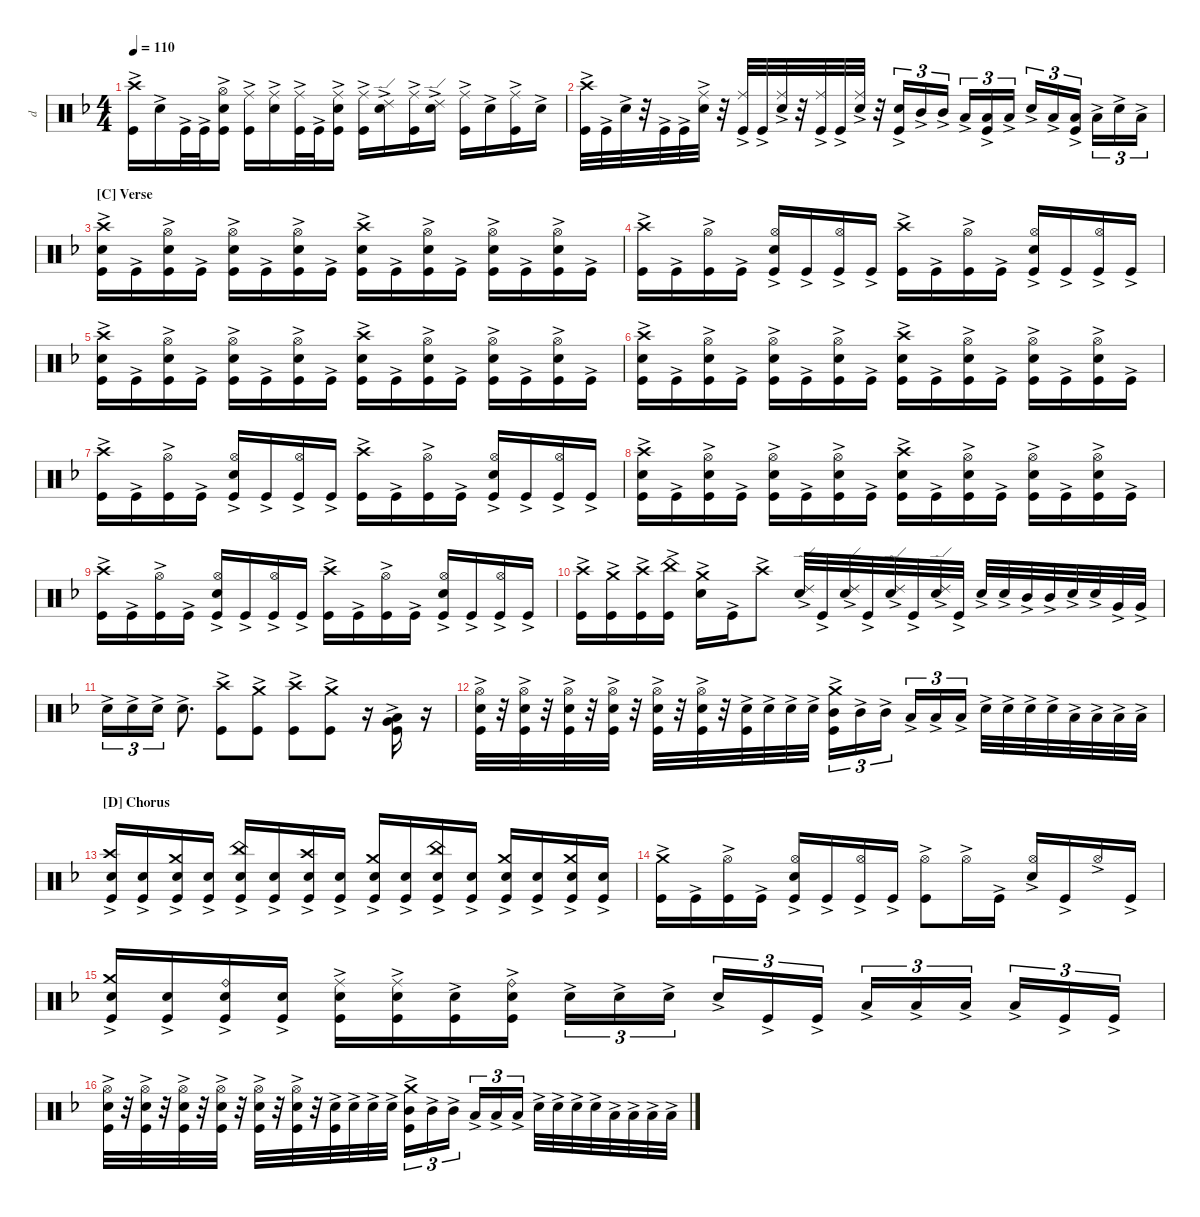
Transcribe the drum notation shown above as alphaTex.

\defaultSystemsLayout 4
\hideDynamics
\bracketExtendMode nobrackets
\otherSystemsTrackNameOrientation horizontal
\track ("Drumkit" "d") {instrument percussion}
\staff {score}
\articulation defaults
\ts (4 4)
\tempo 110
\clef neutral
\ks dminor
("Crash high (hit)"{ac acc forcenatural} "Kick (hit)"{ac acc forcenatural}).16{dy mf beam Down} "Snare (hit) 2"{ac acc forcenatural}.16{beam Down} "Kick (hit)"{ac acc forcenatural}.32{beam Down} "Kick (hit)"{ac acc forcenatural}.32{beam Down} ("Hi-Hat (open)"{ac acc forcenatural} "Snare (hit) 2"{ac acc forcenatural} "Kick (hit)"{ac acc forcenatural}).16{beam Down} ("Ride (middle)"{ac acc forcenatural} "Kick (hit)"{ac acc forcenatural}).16{beam Down} ("Ride (middle)"{ac acc forcenatural} "Snare (hit) 2"{ac acc forcenatural}).16{beam Down} ("Ride (middle)"{ac acc forcenatural} "Kick (hit)"{ac acc forcenatural}).32{beam Down} "Kick (hit)"{ac acc forcenatural}.32{beam Down} ("Ride (middle)"{ac acc forcenatural} "Snare (hit) 2"{ac acc forcenatural} "Kick (hit)"{ac acc forcenatural}).16{beam Down} ("Ride (middle)"{ac acc forcenatural} "Kick (hit)"{ac acc forcenatural}).16{beam Down} ("Ride (edge) 2"{ac acc forcenatural} "Snare (hit) 2"{ac acc forcenatural}).16{beam Down} ("Ride (middle)"{ac acc forcenatural} "Kick (hit)"{ac acc forcenatural}).16{beam Down} ("Ride (edge) 2"{ac acc forcenatural} "Snare (hit) 2"{ac acc forcenatural}).16{beam Down} ("Ride (middle)"{ac acc forcenatural} "Kick (hit)"{ac acc forcenatural}).16{beam Down} "Snare (hit) 2"{ac acc forcenatural}.16{beam Down} ("Ride (middle)"{ac acc forcenatural} "Kick (hit)"{ac acc forcenatural}).16{beam Down} "Snare (hit) 2"{ac acc forcenatural}.16{beam Down} |
("Crash high (hit)"{ac acc forcenatural} "Kick (hit)"{ac acc forcenatural}).32{beam Down} "Kick (hit)"{ac acc forcenatural}.32{beam Down} "Snare (hit) 2"{ac acc forcenatural}.32{beam Down} r.32{beam Down} "Kick (hit)"{ac acc forcenatural}.32{beam Down} "Kick (hit)"{ac acc forcenatural}.32{beam Down} ("Ride (middle)"{ac acc forcenatural} "Snare (hit) 2"{ac acc forcenatural}).32{beam Down} r.32{beam Down} ("Ride (middle)"{ac acc forcenatural} "Kick (hit)"{ac acc forcenatural}).32{beam Up} "Kick (hit)"{ac acc forcenatural}.32{beam Up} ("Ride (middle)"{ac acc forcenatural} "Snare (hit) 2"{ac acc forcenatural}).32{beam Up} r.32{beam Up} ("Ride (middle)"{ac acc forcenatural} "Kick (hit)"{ac acc forcenatural}).32{beam Up} "Kick (hit)"{ac acc forcenatural}.32{beam Up} ("Ride (middle)"{ac acc forcenatural} "Snare (hit) 2"{ac acc forcenatural}).32{beam Up} r.32{beam Up} ("Snare (hit) 2"{ac acc forcenatural} "Kick (hit)"{ac acc forcenatural}).16{tu (3 2) beam Up} "Mid Tom (hit)"{ac acc forcenatural}.16{tu (3 2) beam Up} "Mid Tom (hit)"{ac acc forcenatural}.16{tu (3 2) beam Up} "Low Tom (hit)"{ac acc forcenatural}.16{tu (3 2) beam Up} ("Low Tom (hit)"{ac acc forcenatural} "Kick (hit)"{ac acc forcenatural}).16{tu (3 2) beam Up} "Low Tom (hit)"{ac acc forcenatural}.16{tu (3 2) beam Up} "Snare (hit) 2"{ac acc forcenatural}.16{tu (3 2) beam Up} "Low Tom (hit)"{ac acc forcenatural}.16{tu (3 2) beam Up} ("Low Tom (hit)"{ac acc forcenatural} "Kick (hit)"{ac acc forcenatural}).16{tu (3 2) beam Up} "Low Tom (hit)"{ac acc forcenatural}.16{tu (3 2) beam Down} "Snare (hit) 2"{ac acc forcenatural}.16{tu (3 2) beam Down} "Low Tom (hit)"{ac acc forcenatural}.16{tu (3 2) beam Down} |
\section ("C" "Verse")
("Crash high (hit)"{ac acc forcenatural} "Snare (hit) 2"{ac acc forcenatural} "Kick (hit)"{ac acc forcenatural}).16{beam Down} "Kick (hit)"{ac acc forcenatural}.16{beam Down} ("Hi-Hat (open)"{ac acc forcenatural} "Snare (hit) 2"{ac acc forcenatural} "Kick (hit)"{ac acc forcenatural}).16{beam Down} "Kick (hit)"{ac acc forcenatural}.16{beam Down} ("Hi-Hat (open)"{ac acc forcenatural} "Snare (hit) 2"{ac acc forcenatural} "Kick (hit)"{ac acc forcenatural}).16{beam Down} "Kick (hit)"{ac acc forcenatural}.16{beam Down} ("Hi-Hat (open)"{ac acc forcenatural} "Snare (hit) 2"{ac acc forcenatural} "Kick (hit)"{ac acc forcenatural}).16{beam Down} "Kick (hit)"{ac acc forcenatural}.16{beam Down} ("Crash high (hit)"{ac acc forcenatural} "Snare (hit) 2"{ac acc forcenatural} "Kick (hit)"{ac acc forcenatural}).16{beam Down} "Kick (hit)"{ac acc forcenatural}.16{beam Down} ("Hi-Hat (open)"{ac acc forcenatural} "Snare (hit) 2"{ac acc forcenatural} "Kick (hit)"{ac acc forcenatural}).16{beam Down} "Kick (hit)"{ac acc forcenatural}.16{beam Down} ("Hi-Hat (open)"{ac acc forcenatural} "Snare (hit) 2"{ac acc forcenatural} "Kick (hit)"{ac acc forcenatural}).16{beam Down} "Kick (hit)"{ac acc forcenatural}.16{beam Down} ("Hi-Hat (open)"{ac acc forcenatural} "Snare (hit) 2"{ac acc forcenatural} "Kick (hit)"{ac acc forcenatural}).16{beam Down} "Kick (hit)"{ac acc forcenatural}.16{beam Down} |
("Crash high (hit)"{ac acc forcenatural} "Kick (hit)"{ac acc forcenatural}).16{beam Down} "Kick (hit)"{ac acc forcenatural}.16{beam Down} ("Hi-Hat (open)"{ac acc forcenatural} "Kick (hit)"{ac acc forcenatural}).16{beam Down} "Kick (hit)"{ac acc forcenatural}.16{beam Down} ("Hi-Hat (open)"{ac acc forcenatural} "Snare (hit) 2"{ac acc forcenatural} "Kick (hit)"{ac acc forcenatural}).16{beam Up} "Kick (hit)"{ac acc forcenatural}.16{beam Up} ("Hi-Hat (open)"{ac acc forcenatural} "Kick (hit)"{ac acc forcenatural}).16{beam Up} "Kick (hit)"{ac acc forcenatural}.16{beam Up} ("Crash high (hit)"{ac acc forcenatural} "Kick (hit)"{ac acc forcenatural}).16{beam Down} "Kick (hit)"{ac acc forcenatural}.16{beam Down} ("Hi-Hat (open)"{ac acc forcenatural} "Kick (hit)"{ac acc forcenatural}).16{beam Down} "Kick (hit)"{ac acc forcenatural}.16{beam Down} ("Hi-Hat (open)"{ac acc forcenatural} "Snare (hit) 2"{ac acc forcenatural} "Kick (hit)"{ac acc forcenatural}).16{beam Up} "Kick (hit)"{ac acc forcenatural}.16{beam Up} ("Hi-Hat (open)"{ac acc forcenatural} "Kick (hit)"{ac acc forcenatural}).16{beam Up} "Kick (hit)"{ac acc forcenatural}.16{beam Up} |
("Crash high (hit)"{ac acc forcenatural} "Snare (hit) 2"{ac acc forcenatural} "Kick (hit)"{ac acc forcenatural}).16{beam Down} "Kick (hit)"{ac acc forcenatural}.16{beam Down} ("Hi-Hat (open)"{ac acc forcenatural} "Snare (hit) 2"{ac acc forcenatural} "Kick (hit)"{ac acc forcenatural}).16{beam Down} "Kick (hit)"{ac acc forcenatural}.16{beam Down} ("Hi-Hat (open)"{ac acc forcenatural} "Snare (hit) 2"{ac acc forcenatural} "Kick (hit)"{ac acc forcenatural}).16{beam Down} "Kick (hit)"{ac acc forcenatural}.16{beam Down} ("Hi-Hat (open)"{ac acc forcenatural} "Snare (hit) 2"{ac acc forcenatural} "Kick (hit)"{ac acc forcenatural}).16{beam Down} "Kick (hit)"{ac acc forcenatural}.16{beam Down} ("Crash high (hit)"{ac acc forcenatural} "Snare (hit) 2"{ac acc forcenatural} "Kick (hit)"{ac acc forcenatural}).16{beam Down} "Kick (hit)"{ac acc forcenatural}.16{beam Down} ("Hi-Hat (open)"{ac acc forcenatural} "Snare (hit) 2"{ac acc forcenatural} "Kick (hit)"{ac acc forcenatural}).16{beam Down} "Kick (hit)"{ac acc forcenatural}.16{beam Down} ("Hi-Hat (open)"{ac acc forcenatural} "Snare (hit) 2"{ac acc forcenatural} "Kick (hit)"{ac acc forcenatural}).16{beam Down} "Kick (hit)"{ac acc forcenatural}.16{beam Down} ("Hi-Hat (open)"{ac acc forcenatural} "Snare (hit) 2"{ac acc forcenatural} "Kick (hit)"{ac acc forcenatural}).16{beam Down} "Kick (hit)"{ac acc forcenatural}.16{beam Down} |
("Crash high (hit)"{ac acc forcenatural} "Snare (hit) 2"{ac acc forcenatural} "Kick (hit)"{ac acc forcenatural}).16{beam Down} "Kick (hit)"{ac acc forcenatural}.16{beam Down} ("Hi-Hat (open)"{ac acc forcenatural} "Snare (hit) 2"{ac acc forcenatural} "Kick (hit)"{ac acc forcenatural}).16{beam Down} "Kick (hit)"{ac acc forcenatural}.16{beam Down} ("Hi-Hat (open)"{ac acc forcenatural} "Snare (hit) 2"{ac acc forcenatural} "Kick (hit)"{ac acc forcenatural}).16{beam Down} "Kick (hit)"{ac acc forcenatural}.16{beam Down} ("Hi-Hat (open)"{ac acc forcenatural} "Snare (hit) 2"{ac acc forcenatural} "Kick (hit)"{ac acc forcenatural}).16{beam Down} "Kick (hit)"{ac acc forcenatural}.16{beam Down} ("Crash high (hit)"{ac acc forcenatural} "Snare (hit) 2"{ac acc forcenatural} "Kick (hit)"{ac acc forcenatural}).16{beam Down} "Kick (hit)"{ac acc forcenatural}.16{beam Down} ("Hi-Hat (open)"{ac acc forcenatural} "Snare (hit) 2"{ac acc forcenatural} "Kick (hit)"{ac acc forcenatural}).16{beam Down} "Kick (hit)"{ac acc forcenatural}.16{beam Down} ("Hi-Hat (open)"{ac acc forcenatural} "Snare (hit) 2"{ac acc forcenatural} "Kick (hit)"{ac acc forcenatural}).16{beam Down} "Kick (hit)"{ac acc forcenatural}.16{beam Down} ("Hi-Hat (open)"{ac acc forcenatural} "Snare (hit) 2"{ac acc forcenatural} "Kick (hit)"{ac acc forcenatural}).16{beam Down} "Kick (hit)"{ac acc forcenatural}.16{beam Down} |
("Crash high (hit)"{ac acc forcenatural} "Kick (hit)"{ac acc forcenatural}).16{beam Down} "Kick (hit)"{ac acc forcenatural}.16{beam Down} ("Hi-Hat (open)"{ac acc forcenatural} "Kick (hit)"{ac acc forcenatural}).16{beam Down} "Kick (hit)"{ac acc forcenatural}.16{beam Down} ("Hi-Hat (open)"{ac acc forcenatural} "Snare (hit) 2"{ac acc forcenatural} "Kick (hit)"{ac acc forcenatural}).16{beam Up} "Kick (hit)"{ac acc forcenatural}.16{beam Up} ("Hi-Hat (open)"{ac acc forcenatural} "Kick (hit)"{ac acc forcenatural}).16{beam Up} "Kick (hit)"{ac acc forcenatural}.16{beam Up} ("Crash high (hit)"{ac acc forcenatural} "Kick (hit)"{ac acc forcenatural}).16{beam Down} "Kick (hit)"{ac acc forcenatural}.16{beam Down} ("Hi-Hat (open)"{ac acc forcenatural} "Kick (hit)"{ac acc forcenatural}).16{beam Down} "Kick (hit)"{ac acc forcenatural}.16{beam Down} ("Hi-Hat (open)"{ac acc forcenatural} "Snare (hit) 2"{ac acc forcenatural} "Kick (hit)"{ac acc forcenatural}).16{beam Up} "Kick (hit)"{ac acc forcenatural}.16{beam Up} ("Hi-Hat (open)"{ac acc forcenatural} "Kick (hit)"{ac acc forcenatural}).16{beam Up} "Kick (hit)"{ac acc forcenatural}.16{beam Up} |
("Crash high (hit)"{ac acc forcenatural} "Snare (hit) 2"{ac acc forcenatural} "Kick (hit)"{ac acc forcenatural}).16{beam Down} "Kick (hit)"{ac acc forcenatural}.16{beam Down} ("Hi-Hat (open)"{ac acc forcenatural} "Snare (hit) 2"{ac acc forcenatural} "Kick (hit)"{ac acc forcenatural}).16{beam Down} "Kick (hit)"{ac acc forcenatural}.16{beam Down} ("Hi-Hat (open)"{ac acc forcenatural} "Snare (hit) 2"{ac acc forcenatural} "Kick (hit)"{ac acc forcenatural}).16{beam Down} "Kick (hit)"{ac acc forcenatural}.16{beam Down} ("Hi-Hat (open)"{ac acc forcenatural} "Snare (hit) 2"{ac acc forcenatural} "Kick (hit)"{ac acc forcenatural}).16{beam Down} "Kick (hit)"{ac acc forcenatural}.16{beam Down} ("Crash high (hit)"{ac acc forcenatural} "Snare (hit) 2"{ac acc forcenatural} "Kick (hit)"{ac acc forcenatural}).16{beam Down} "Kick (hit)"{ac acc forcenatural}.16{beam Down} ("Hi-Hat (open)"{ac acc forcenatural} "Snare (hit) 2"{ac acc forcenatural} "Kick (hit)"{ac acc forcenatural}).16{beam Down} "Kick (hit)"{ac acc forcenatural}.16{beam Down} ("Hi-Hat (open)"{ac acc forcenatural} "Snare (hit) 2"{ac acc forcenatural} "Kick (hit)"{ac acc forcenatural}).16{beam Down} "Kick (hit)"{ac acc forcenatural}.16{beam Down} ("Hi-Hat (open)"{ac acc forcenatural} "Snare (hit) 2"{ac acc forcenatural} "Kick (hit)"{ac acc forcenatural}).16{beam Down} "Kick (hit)"{ac acc forcenatural}.16{beam Down} |
("Crash high (hit)"{ac acc forcenatural} "Kick (hit)"{ac acc forcenatural}).16{beam Down} "Kick (hit)"{ac acc forcenatural}.16{beam Down} ("Hi-Hat (open)"{ac acc forcenatural} "Kick (hit)"{ac acc forcenatural}).16{beam Down} "Kick (hit)"{ac acc forcenatural}.16{beam Down} ("Hi-Hat (open)"{ac acc forcenatural} "Snare (hit) 2"{ac acc forcenatural} "Kick (hit)"{ac acc forcenatural}).16{beam Up} "Kick (hit)"{ac acc forcenatural}.16{beam Up} ("Hi-Hat (open)"{ac acc forcenatural} "Kick (hit)"{ac acc forcenatural}).16{beam Up} "Kick (hit)"{ac acc forcenatural}.16{beam Up} ("Crash high (hit)"{ac acc forcenatural} "Kick (hit)"{ac acc forcenatural}).16{beam Down} "Kick (hit)"{ac acc forcenatural}.16{beam Down} ("Hi-Hat (open)"{ac acc forcenatural} "Kick (hit)"{ac acc forcenatural}).16{beam Down} "Kick (hit)"{ac acc forcenatural}.16{beam Down} ("Hi-Hat (open)"{ac acc forcenatural} "Snare (hit) 2"{ac acc forcenatural} "Kick (hit)"{ac acc forcenatural}).16{beam Up} "Kick (hit)"{ac acc forcenatural}.16{beam Up} ("Hi-Hat (open)"{ac acc forcenatural} "Kick (hit)"{ac acc forcenatural}).16{beam Up} "Kick (hit)"{ac acc forcenatural}.16{beam Up} |
("Crash high (hit)"{ac acc forcenatural} "Kick (hit)"{ac acc forcenatural}).16{dy ff beam Down} ("Crash medium (hit)"{ac acc forcenatural} "Kick (hit)"{ac acc forcenatural}).16{beam Down} ("Crash high (hit)"{ac acc forcenatural} "Kick (hit)"{ac acc forcenatural}).16{beam Down} ("China (hit)"{ac acc forcenatural} "Kick (hit)"{ac acc forcenatural}).16{beam Down} ("Crash medium (hit)"{ac acc forcenatural} "Snare (hit) 2"{ac acc forcenatural}).16{dy mf beam Down} "Kick (hit)"{ac acc forcenatural}.16{dy ff beam Down} "Crash high (hit)"{ac acc forcenatural}.8{dy mf beam Down} ("Ride (edge) 2"{ac acc forcenatural} "Snare (hit) 2"{ac acc forcenatural}).32{beam Up} "Kick (hit)"{ac acc forcenatural}.32{beam Up} ("Ride (edge) 2"{ac acc forcenatural} "Snare (hit) 2"{ac acc forcenatural}).32{beam Up} "Kick (hit)"{ac acc forcenatural}.32{beam Up} ("Ride (edge) 2"{ac acc forcenatural} "Snare (hit) 2"{ac acc forcenatural}).32{beam Up} "Kick (hit)"{ac acc forcenatural}.32{beam Up} ("Ride (edge) 2"{ac acc forcenatural} "Snare (hit) 2"{ac acc forcenatural}).32{beam Up} "Kick (hit)"{ac acc forcenatural}.32{beam Up} "Snare (hit) 2"{ac acc forcenatural}.32{beam Up} "Snare (hit) 2"{ac acc forcenatural}.32{beam Up} "Mid Tom (hit)"{ac acc forcenatural}.32{beam Up} "Mid Tom (hit)"{ac acc forcenatural}.32{beam Up} "Snare (hit) 2"{ac acc forcenatural}.32{beam Up} "Snare (hit) 2"{ac acc forcenatural}.32{beam Up} "Very Low Tom (hit)"{ac acc forcenatural}.32{beam Up} "Very Low Tom (hit)"{ac acc forcenatural}.32{beam Up} |
"Snare (hit) 2"{ac acc forcenatural}.16{tu (3 2) beam Down} "Snare (hit) 2"{ac acc forcenatural}.16{tu (3 2) beam Down} "Snare (hit) 2"{ac acc forcenatural}.16{tu (3 2) beam Down} "Snare (hit) 2"{ac acc forcenatural}.8{d beam Down} ("Crash high (hit)"{ac acc forcenatural} "Kick (hit)"{ac acc forcenatural}).8{beam Down} ("Crash medium (hit)"{ac acc forcenatural} "Kick (hit)"{ac acc forcenatural}).8{beam Down} ("Crash high (hit)"{ac acc forcenatural} "Kick (hit)"{ac acc forcenatural}).8{beam Down} ("Crash medium (hit)"{ac acc forcenatural} "Kick (hit)"{ac acc forcenatural}).8{beam Down} r.16{beam Down} ("Low Floor Tom (hit)"{ac acc forcenatural} "Very Low Tom (hit)"{ac acc forcenatural} "Kick (hit)"{ac acc forcenatural}).16{dy ff beam Up} r.16{beam Up} |
("Hi-Hat (open)"{ac acc forcenatural} "Snare (hit) 2"{ac acc forcenatural} "Kick (hit)"{ac acc forcenatural}).32{dy mf beam Down} r.32{beam Down} ("Hi-Hat (open)"{ac acc forcenatural} "Snare (hit) 2"{ac acc forcenatural} "Kick (hit)"{ac acc forcenatural}).32{beam Down} r.32{beam Down} ("Hi-Hat (open)"{ac acc forcenatural} "Snare (hit) 2"{ac acc forcenatural} "Kick (hit)"{ac acc forcenatural}).32{beam Down} r.32{beam Down} ("Hi-Hat (open)"{ac acc forcenatural} "Snare (hit) 2"{ac acc forcenatural} "Kick (hit)"{ac acc forcenatural}).32{beam Down} r.32{beam Down} ("Hi-Hat (open)"{ac acc forcenatural} "Snare (hit) 2"{ac acc forcenatural} "Kick (hit)"{ac acc forcenatural}).32{beam Down} r.32{beam Down} ("Hi-Hat (open)"{ac acc forcenatural} "Snare (hit) 2"{ac acc forcenatural} "Kick (hit)"{ac acc forcenatural}).32{beam Down} r.32{beam Down} ("Snare (hit) 2"{ac acc forcenatural} "Kick (hit)"{ac acc forcenatural}).32{beam Down} "Snare (hit) 2"{ac acc forcenatural}.32{beam Down} "Snare (hit) 2"{ac acc forcenatural}.32{beam Down} "Snare (hit) 2"{ac acc forcenatural}.32{beam Down} ("Crash medium (hit)"{ac acc forcenatural} "Mid Tom (hit)"{ac acc forcenatural} "Kick (hit)"{ac acc forcenatural}).16{tu (3 2) beam Down} "Mid Tom (hit)"{ac acc forcenatural}.16{tu (3 2) beam Down} "Mid Tom (hit)"{ac acc forcenatural}.16{tu (3 2) beam Down} "Low Tom (hit)"{ac acc forcenatural}.16{tu (3 2) beam Up} "Low Tom (hit)"{ac acc forcenatural}.16{tu (3 2) beam Up} "Low Tom (hit)"{ac acc forcenatural}.16{tu (3 2) beam Up} "Snare (hit) 2"{ac acc forcenatural}.32{beam Down} "Snare (hit) 2"{ac acc forcenatural}.32{beam Down} "Snare (hit) 2"{ac acc forcenatural}.32{beam Down} "Snare (hit) 2"{ac acc forcenatural}.32{beam Down} "Low Tom (hit)"{ac acc forcenatural}.32{beam Down} "Low Tom (hit)"{ac acc forcenatural}.32{beam Down} "Low Tom (hit)"{ac acc forcenatural}.32{beam Down} "Low Tom (hit)"{ac acc forcenatural}.32{beam Down} |
\section ("D" "Chorus")
("Crash high (hit)"{ac acc forcenatural} "Snare (hit) 2"{ac acc forcenatural} "Kick (hit)"{ac acc forcenatural}).16{beam Up} ("Snare (hit) 2"{ac acc forcenatural} "Kick (hit)"{ac acc forcenatural}).16{beam Up} ("Crash medium (hit)"{ac acc forcenatural} "Snare (hit) 2"{ac acc forcenatural} "Kick (hit)"{ac acc forcenatural}).16{beam Up} ("Snare (hit) 2"{ac acc forcenatural} "Kick (hit)"{ac acc forcenatural}).16{beam Up} ("China (hit)"{ac acc forcenatural} "Snare (hit) 2"{ac acc forcenatural} "Kick (hit)"{ac acc forcenatural}).16{beam Up} ("Snare (hit) 2"{ac acc forcenatural} "Kick (hit)"{ac acc forcenatural}).16{beam Up} ("Crash high (hit)"{ac acc forcenatural} "Snare (hit) 2"{ac acc forcenatural} "Kick (hit)"{ac acc forcenatural}).16{beam Up} ("Snare (hit) 2"{ac acc forcenatural} "Kick (hit)"{ac acc forcenatural}).16{beam Up} ("Crash medium (hit)"{ac acc forcenatural} "Snare (hit) 2"{ac acc forcenatural} "Kick (hit)"{ac acc forcenatural}).16{beam Up} ("Snare (hit) 2"{ac acc forcenatural} "Kick (hit)"{ac acc forcenatural}).16{beam Up} ("China (hit)"{ac acc forcenatural} "Snare (hit) 2"{ac acc forcenatural} "Kick (hit)"{ac acc forcenatural}).16{beam Up} ("Snare (hit) 2"{ac acc forcenatural} "Kick (hit)"{ac acc forcenatural}).16{beam Up} ("Crash medium (hit)"{ac acc forcenatural} "Snare (hit) 2"{ac acc forcenatural} "Kick (hit)"{ac acc forcenatural}).16{beam Up} ("Snare (hit) 2"{ac acc forcenatural} "Kick (hit)"{ac acc forcenatural}).16{beam Up} ("Crash medium (hit)"{ac acc forcenatural} "Snare (hit) 2"{ac acc forcenatural} "Kick (hit)"{ac acc forcenatural}).16{beam Up} ("Snare (hit) 2"{ac acc forcenatural} "Kick (hit)"{ac acc forcenatural}).16{beam Up} |
("Crash medium (hit)"{ac acc forcenatural} "Kick (hit)"{ac acc forcenatural}).16{dy ff beam Down} "Kick (hit)"{ac acc forcenatural}.16{dy mf beam Down} ("Hi-Hat (open)"{ac acc forcenatural} "Kick (hit)"{ac acc forcenatural}).16{beam Down} "Kick (hit)"{ac acc forcenatural}.16{beam Down} ("Hi-Hat (open)"{ac acc forcenatural} "Snare (hit) 2"{ac acc forcenatural} "Kick (hit)"{ac acc forcenatural}).16{beam Up} "Kick (hit)"{ac acc forcenatural}.16{beam Up} ("Hi-Hat (open)"{ac acc forcenatural} "Kick (hit)"{ac acc forcenatural}).16{beam Up} "Kick (hit)"{ac acc forcenatural}.16{beam Up} ("Hi-Hat (open)"{ac acc forcenatural} "Kick (hit)"{ac acc forcenatural}).8{beam Down} "Hi-Hat (open)"{ac acc forcenatural}.16{beam Down} "Kick (hit)"{ac acc forcenatural}.16{beam Down} ("Hi-Hat (open)"{ac acc forcenatural} "Snare (hit) 2"{ac acc forcenatural}).16{beam Up} "Kick (hit)"{ac acc forcenatural}.16{beam Up} "Hi-Hat (open)"{ac acc forcenatural}.16{beam Up} "Kick (hit)"{ac acc forcenatural}.16{beam Up} |
("Crash medium (hit)"{ac acc forcenatural} "Snare (hit) 2"{ac acc forcenatural} "Kick (hit)"{ac acc forcenatural}).16{beam Up} ("Snare (hit) 2"{ac acc forcenatural} "Kick (hit)"{ac acc forcenatural}).16{beam Up} ("Ride (bell)"{ac acc forcenatural} "Snare (hit) 2"{ac acc forcenatural} "Kick (hit)"{ac acc forcenatural}).16{beam Up} ("Snare (hit) 2"{ac acc forcenatural} "Kick (hit)"{ac acc forcenatural}).16{beam Up} ("Ride (middle)"{ac acc forcenatural} "Snare (hit) 2"{ac acc forcenatural} "Kick (hit)"{ac acc forcenatural}).16{beam Down} ("Ride (middle)"{ac acc forcenatural} "Snare (hit) 2"{ac acc forcenatural} "Kick (hit)"{ac acc forcenatural}).16{beam Down} ("Snare (hit) 2"{ac acc forcenatural} "Kick (hit)"{ac acc forcenatural}).16{beam Down} ("Ride (bell)"{ac acc forcenatural} "Snare (hit) 2"{ac acc forcenatural} "Kick (hit)"{ac acc forcenatural}).16{beam Down} "Snare (hit) 2"{ac acc forcenatural}.16{tu (3 2) beam Down} "Snare (hit) 2"{ac acc forcenatural}.16{tu (3 2) beam Down} "Snare (hit) 2"{ac acc forcenatural}.16{tu (3 2) beam Down} "Snare (hit) 2"{ac acc forcenatural}.16{tu (3 2) beam Up} "Kick (hit)"{ac acc forcenatural}.16{tu (3 2) beam Up} "Kick (hit)"{ac acc forcenatural}.16{tu (3 2) beam Up} "Low Floor Tom (hit)"{ac acc forcenatural}.16{tu (3 2) beam Up} "Low Floor Tom (hit)"{ac acc forcenatural}.16{tu (3 2) beam Up} "Low Floor Tom (hit)"{ac acc forcenatural}.16{tu (3 2) beam Up} "Low Floor Tom (hit)"{ac acc forcenatural}.16{tu (3 2) beam Up} "Kick (hit)"{ac acc forcenatural}.16{tu (3 2) beam Up} "Kick (hit)"{ac acc forcenatural}.16{tu (3 2) beam Up} |
("Hi-Hat (open)"{ac acc forcenatural} "Snare (hit) 2"{ac acc forcenatural} "Kick (hit)"{ac acc forcenatural}).32{beam Down} r.32{beam Down} ("Hi-Hat (open)"{ac acc forcenatural} "Snare (hit) 2"{ac acc forcenatural} "Kick (hit)"{ac acc forcenatural}).32{beam Down} r.32{beam Down} ("Hi-Hat (open)"{ac acc forcenatural} "Snare (hit) 2"{ac acc forcenatural} "Kick (hit)"{ac acc forcenatural}).32{beam Down} r.32{beam Down} ("Hi-Hat (open)"{ac acc forcenatural} "Snare (hit) 2"{ac acc forcenatural} "Kick (hit)"{ac acc forcenatural}).32{beam Down} r.32{beam Down} ("Hi-Hat (open)"{ac acc forcenatural} "Snare (hit) 2"{ac acc forcenatural} "Kick (hit)"{ac acc forcenatural}).32{beam Down} r.32{beam Down} ("Hi-Hat (open)"{ac acc forcenatural} "Snare (hit) 2"{ac acc forcenatural} "Kick (hit)"{ac acc forcenatural}).32{beam Down} r.32{beam Down} ("Snare (hit) 2"{ac acc forcenatural} "Kick (hit)"{ac acc forcenatural}).32{beam Down} "Snare (hit) 2"{ac acc forcenatural}.32{beam Down} "Snare (hit) 2"{ac acc forcenatural}.32{beam Down} "Snare (hit) 2"{ac acc forcenatural}.32{beam Down} ("Crash medium (hit)"{ac acc forcenatural} "Mid Tom (hit)"{ac acc forcenatural} "Kick (hit)"{ac acc forcenatural}).16{tu (3 2) beam Down} "Mid Tom (hit)"{ac acc forcenatural}.16{tu (3 2) beam Down} "Mid Tom (hit)"{ac acc forcenatural}.16{tu (3 2) beam Down} "Low Tom (hit)"{ac acc forcenatural}.16{tu (3 2) beam Up} "Low Tom (hit)"{ac acc forcenatural}.16{tu (3 2) beam Up} "Low Tom (hit)"{ac acc forcenatural}.16{tu (3 2) beam Up} "Snare (hit) 2"{ac acc forcenatural}.32{beam Down} "Snare (hit) 2"{ac acc forcenatural}.32{beam Down} "Snare (hit) 2"{ac acc forcenatural}.32{beam Down} "Snare (hit) 2"{ac acc forcenatural}.32{beam Down} "Low Tom (hit)"{ac acc forcenatural}.32{beam Down} "Low Tom (hit)"{ac acc forcenatural}.32{beam Down} "Low Tom (hit)"{ac acc forcenatural}.32{beam Down} "Low Tom (hit)"{ac acc forcenatural}.32{beam Down}
